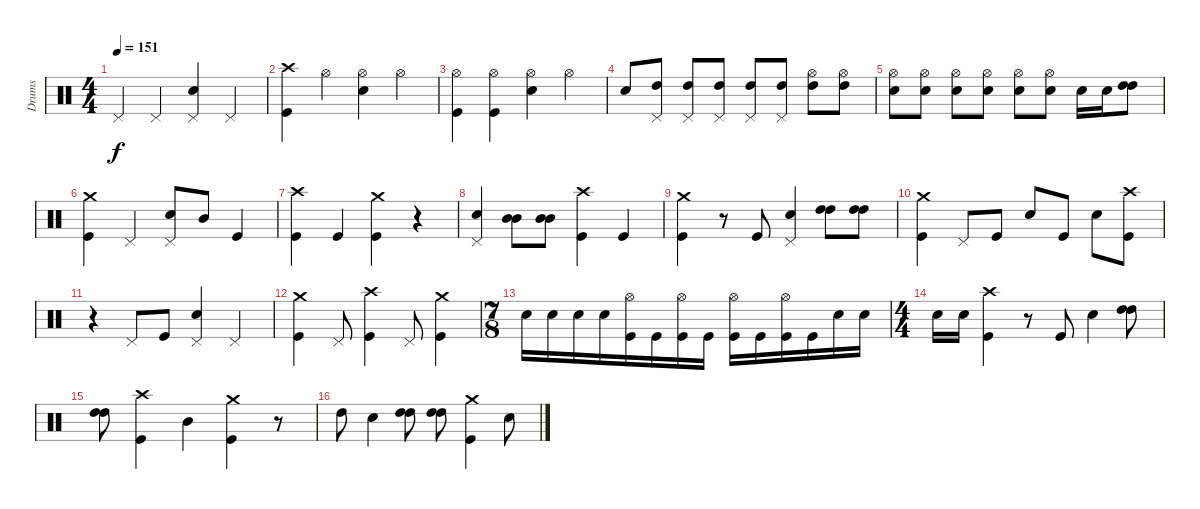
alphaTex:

\track ("Drums" "Drums") {instrument percussion}
\staff {score}
\articulation defaults
\ts (4 4)
\tempo 151
\clef neutral
\ks c "Pedal Hi-Hat (hit)".4{dy f} "Pedal Hi-Hat (hit)".4
("Pedal Hi-Hat (hit)" "Snare (hit) 2").4 "Pedal Hi-Hat (hit)".4 |
("Crash high (hit)" "Kick (hit)").4 "Hi-Hat (open)".4 ("Hi-Hat (open)" "Snare (hit) 2").4 "Hi-Hat (open)".4 |
("Hi-Hat (open)" "Kick (hit)").4 ("Hi-Hat (open)" "Kick (hit)").4 ("Hi-Hat (open)" "Snare (hit) 2").4 "Hi-Hat (open)".4 |
"Snare (hit) 2".8 ("Pedal Hi-Hat (hit)" "High Tom (hit)").8 ("Pedal Hi-Hat (hit)" "High Tom (hit)").8 ("Pedal Hi-Hat (hit)" "High Tom (hit)").8 ("Pedal Hi-Hat (hit)" "High Tom (hit)").8 ("Pedal Hi-Hat (hit)" "High Tom (hit)").8 ("Hi-Hat (open)" "High Tom (hit)").8 ("Hi-Hat (open)" "High Tom (hit)").8 |
("Hi-Hat (open)" "Snare (hit) 2").8 ("Hi-Hat (open)" "Snare (hit) 2").8 ("Hi-Hat (open)" "Snare (hit) 2").8 ("Hi-Hat (open)" "Snare (hit) 2").8 ("Hi-Hat (open)" "Snare (hit) 2").8 ("Hi-Hat (open)" "Snare (hit) 2").8 "Snare (hit) 2".16 "Snare (hit) 2".16 ("High Tom (hit)" "High Tom (hit)").8 |
("Crash medium (hit)" "Kick (hit)").4 "Pedal Hi-Hat (hit)".4 ("Pedal Hi-Hat (hit)" "Snare (hit) 2").8 "Mid Tom (hit)".8 "Kick (hit)".4 |
("Crash high (hit)" "Kick (hit)").4 "Kick (hit)".4 ("Crash medium (hit)" "Kick (hit)").4 r.4 |
("Pedal Hi-Hat (hit)" "Snare (hit) 2").4 ("Mid Tom (hit)" "Mid Tom (hit)").8 ("Mid Tom (hit)" "Mid Tom (hit)").8 ("Crash high (hit)" "Kick (hit)").4 "Kick (hit)".4 |
("Crash medium (hit)" "Kick (hit)").4 r.8 "Kick (hit)".8 ("Pedal Hi-Hat (hit)" "Snare (hit) 2").4 ("High Tom (hit)" "High Tom (hit)").8 ("High Tom (hit)" "High Tom (hit)").8 |
("Crash medium (hit)" "Kick (hit)").4 "Pedal Hi-Hat (hit)".8 "Kick (hit)".8 "Snare (hit) 2".8 "Kick (hit)".8 "Snare (hit) 2".8 ("Crash high (hit)" "Kick (hit)").8 |
r.4 "Pedal Hi-Hat (hit)".8 "Kick (hit)".8 ("Pedal Hi-Hat (hit)" "Snare (hit) 2").4 "Pedal Hi-Hat (hit)".4 |
("Crash medium (hit)" "Kick (hit)").4 "Pedal Hi-Hat (hit)".8 ("Crash high (hit)" "Kick (hit)").4 "Pedal Hi-Hat (hit)".8 ("Crash medium (hit)" "Kick (hit)").4 |
\ts (7 8)
"Snare (hit) 2".16 "Snare (hit) 2".16 "Snare (hit) 2".16 "Snare (hit) 2".16 ("Hi-Hat (open)" "Kick (hit)").16 "Kick (hit)".16 ("Hi-Hat (open)" "Kick (hit)").16 "Kick (hit)".16 ("Hi-Hat (open)" "Kick (hit)").16 "Kick (hit)".16 ("Hi-Hat (open)" "Kick (hit)").16 "Kick (hit)".16 "Snare (hit) 2".16 "Snare (hit) 2".16 |
\ts (4 4)
"Snare (hit) 2".16 "Snare (hit) 2".16 ("Crash high (hit)" "Kick (hit)").4 r.8 "Kick (hit)".8 "Snare (hit) 2".4 ("High Tom (hit)" "High Tom (hit)").8 |
("High Tom (hit)" "High Tom (hit)").8 ("Crash high (hit)" "Kick (hit)").4 "Mid Tom (hit)".4 ("Crash medium (hit)" "Kick (hit)").4 r.8 |
"High Tom (hit)".8 "Snare (hit) 2".4 ("High Tom (hit)" "High Tom (hit)").8 ("High Tom (hit)" "High Tom (hit)").8 ("Crash medium (hit)" "Kick (hit)").4 "Snare (hit) 2".8
